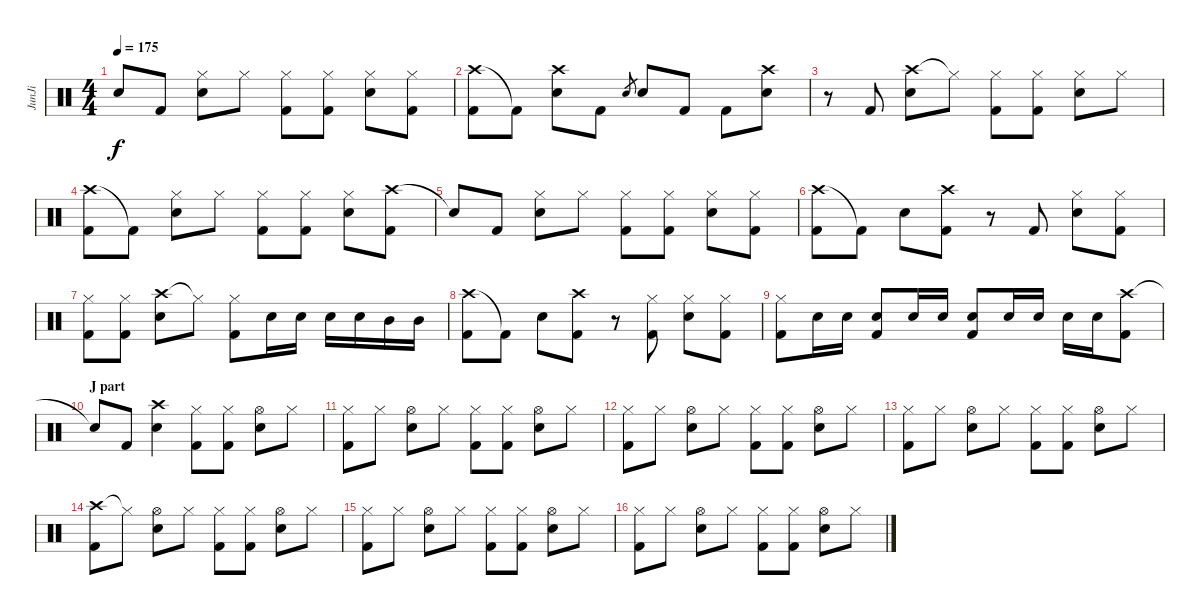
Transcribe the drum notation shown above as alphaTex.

\track ("JunJi" "JunJi") {instrument percussion}
\staff {score}
\articulation defaults
\ts (4 4)
\tempo 175
\clef neutral
\ks c "Snare (hit)"{t}.8{dy f} "Kick (hit) 2".8
("Hi-Hat (closed)" "Snare (hit) 2").8 "Hi-Hat (closed)".8 ("Hi-Hat (closed)" "Kick (hit) 2").8 ("Hi-Hat (closed)" "Kick (hit) 2").8 ("Hi-Hat (closed)" "Snare (hit) 2").8 ("Hi-Hat (closed)" "Kick (hit) 2").8 |
("Crash high (hit)" "Kick (hit) 2").8 "Kick (hit) 2"{t}.8 ("Crash high (hit)" "Snare (hit) 2").8 "Kick (hit) 2".8 "Snare (hit) 2".8{gr} "Snare (hit) 2".8 "Kick (hit) 2".8 "Kick (hit) 2".8 ("Crash high (hit)" "Snare (hit) 2").8 |
r.8 "Kick (hit) 2".8 ("Crash high (hit)" "Snare (hit) 2").8 "Hi-Hat (closed)"{t}.8 ("Hi-Hat (closed)" "Kick (hit) 2").8 ("Hi-Hat (closed)" "Kick (hit) 2").8 ("Hi-Hat (closed)" "Snare (hit) 2").8 "Hi-Hat (closed)".8 |
("Crash high (hit)" "Kick (hit) 2").8 "Kick (hit) 2"{t}.8 ("Hi-Hat (closed)" "Snare (hit) 2").8 "Hi-Hat (closed)".8 ("Hi-Hat (closed)" "Kick (hit) 2").8 ("Hi-Hat (closed)" "Kick (hit) 2").8 ("Hi-Hat (closed)" "Snare (hit) 2").8 ("Crash high (hit)" "Kick (hit) 2").8 |
"Snare (hit)"{t}.8 "Kick (hit) 2".8 ("Hi-Hat (closed)" "Snare (hit) 2").8 "Hi-Hat (closed)".8 ("Hi-Hat (closed)" "Kick (hit) 2").8 ("Hi-Hat (closed)" "Kick (hit) 2").8 ("Hi-Hat (closed)" "Snare (hit) 2").8 ("Hi-Hat (closed)" "Kick (hit) 2").8 |
("Crash high (hit)" "Kick (hit) 2").8 "Kick (hit) 2"{t}.8 "Snare (hit) 2".8 ("Crash high (hit)" "Kick (hit) 2").8 r.8 "Kick (hit) 2".8 ("Hi-Hat (closed)" "Snare (hit) 2").8 ("Hi-Hat (closed)" "Kick (hit) 2").8 |
("Hi-Hat (closed)" "Kick (hit) 2").8 ("Hi-Hat (closed)" "Kick (hit) 2").8 ("Crash high (hit)" "Snare (hit) 2").8 "Hi-Hat (closed)"{t}.8 ("Hi-Hat (closed)" "Kick (hit) 2").8 "Snare (hit) 2".16 "Snare (hit) 2".16 "Snare (hit) 2".16 "Snare (hit) 2".16 "Mid Tom (hit)".16 "Mid Tom (hit)".16 |
("Crash high (hit)" "Kick (hit) 2").8 "Kick (hit) 2"{t}.8 "Snare (hit) 2".8 ("Crash high (hit)" "Kick (hit) 2").8 r.8 ("Hi-Hat (closed)" "Kick (hit) 2").8 ("Hi-Hat (closed)" "Snare (hit) 2").8 ("Hi-Hat (closed)" "Kick (hit) 2").8 |
("Hi-Hat (closed)" "Kick (hit) 2").8 "Snare (hit) 2".16 "Snare (hit) 2".16 ("Snare (hit) 2" "Kick (hit) 2").8 "Snare (hit) 2".16 "Snare (hit) 2".16 ("Snare (hit) 2" "Kick (hit) 2").8 "Snare (hit) 2".16 "Snare (hit) 2".16 "Snare (hit) 2".16 "Snare (hit) 2".16 ("Crash high (hit)" "Kick (hit) 2").8 |
\section ("" "J part")
"Snare (hit)"{t}.8 "Kick (hit) 2".8 ("Snare (hit) 2" "Crash high (hit)").4 ("Hi-Hat (closed)" "Kick (hit) 2").8 ("Hi-Hat (closed)" "Kick (hit) 2").8 ("Hi-Hat (open)" "Snare (hit) 2").8 "Hi-Hat (closed)".8 |
("Hi-Hat (closed)" "Kick (hit) 2").8 "Hi-Hat (closed)".8 ("Hi-Hat (open)" "Snare (hit) 2").8 "Hi-Hat (closed)".8 ("Hi-Hat (closed)" "Kick (hit) 2").8 ("Hi-Hat (closed)" "Kick (hit) 2").8 ("Hi-Hat (open)" "Snare (hit) 2").8 "Hi-Hat (closed)".8 |
("Hi-Hat (closed)" "Kick (hit) 2").8 "Hi-Hat (closed)".8 ("Hi-Hat (open)" "Snare (hit) 2").8 "Hi-Hat (closed)".8 ("Hi-Hat (closed)" "Kick (hit) 2").8 ("Hi-Hat (closed)" "Kick (hit) 2").8 ("Hi-Hat (open)" "Snare (hit) 2").8 "Hi-Hat (closed)".8 |
("Hi-Hat (closed)" "Kick (hit) 2").8 "Hi-Hat (closed)".8 ("Hi-Hat (open)" "Snare (hit) 2").8 "Hi-Hat (closed)".8 ("Hi-Hat (closed)" "Kick (hit) 2").8 ("Hi-Hat (closed)" "Kick (hit) 2").8 ("Hi-Hat (open)" "Snare (hit) 2").8 "Hi-Hat (closed)".8 |
("Crash high (hit)" "Kick (hit) 2").8 "Hi-Hat (closed)"{t}.8 ("Hi-Hat (open)" "Snare (hit) 2").8 "Hi-Hat (closed)".8 ("Hi-Hat (closed)" "Kick (hit) 2").8 ("Hi-Hat (closed)" "Kick (hit) 2").8 ("Hi-Hat (open)" "Snare (hit) 2").8 "Hi-Hat (closed)".8 |
("Hi-Hat (closed)" "Kick (hit) 2").8 "Hi-Hat (closed)".8 ("Hi-Hat (open)" "Snare (hit) 2").8 "Hi-Hat (closed)".8 ("Hi-Hat (closed)" "Kick (hit) 2").8 ("Hi-Hat (closed)" "Kick (hit) 2").8 ("Hi-Hat (open)" "Snare (hit) 2").8 "Hi-Hat (closed)".8 |
("Hi-Hat (closed)" "Kick (hit) 2").8 "Hi-Hat (closed)".8 ("Hi-Hat (open)" "Snare (hit) 2").8 "Hi-Hat (closed)".8 ("Hi-Hat (closed)" "Kick (hit) 2").8 ("Hi-Hat (closed)" "Kick (hit) 2").8 ("Hi-Hat (open)" "Snare (hit) 2").8 "Hi-Hat (closed)".8
